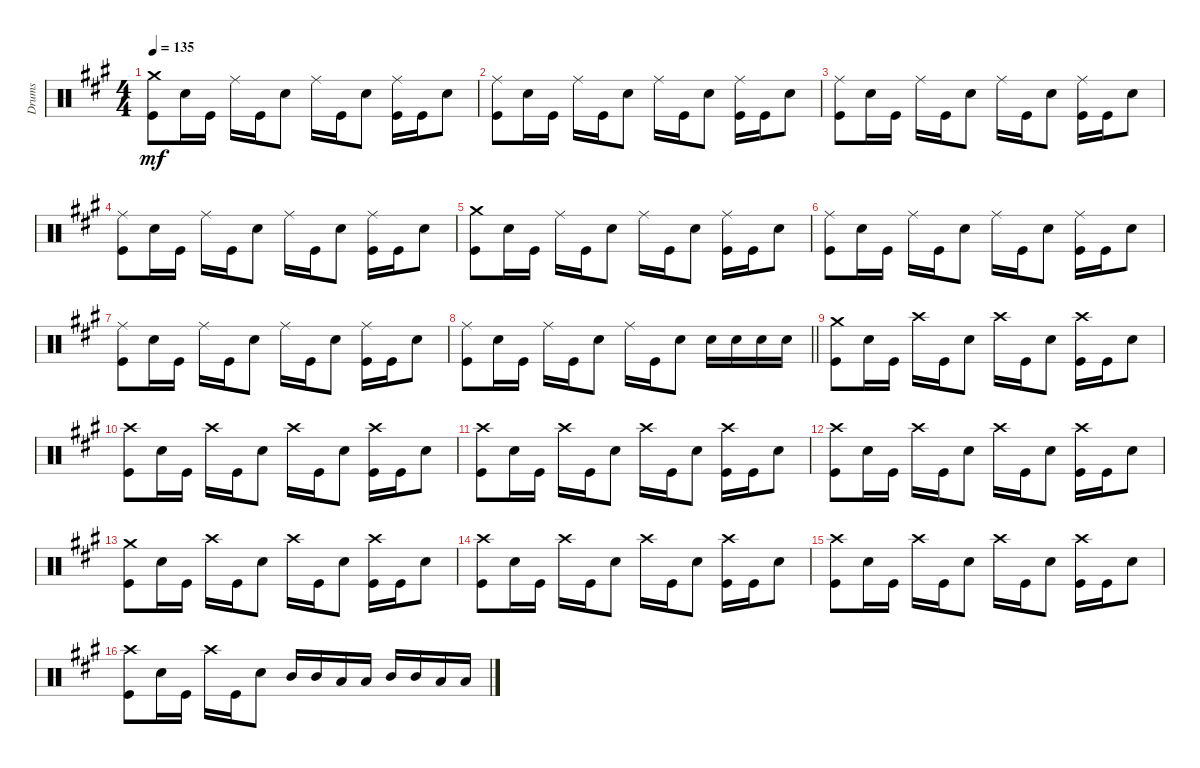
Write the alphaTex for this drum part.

\track ("Drums" "Drums") {instrument percussion}
\staff {score}
\articulation defaults
\ts (4 4)
\tempo 135
\clef neutral
\ks a
("Kick (hit)" "Crash medium (hit)").8{dy mf} "Snare (hit) 2".16 "Kick (hit)".16 "Ride (middle)".16 "Kick (hit)".16 "Snare (hit) 2".8 "Ride (middle)".16 "Kick (hit)".16 "Snare (hit) 2".8 ("Kick (hit)" "Ride (middle)").16 "Kick (hit)".16 "Snare (hit) 2".8 |
("Kick (hit)" "Ride (middle)").8 "Snare (hit) 2".16 "Kick (hit)".16 "Ride (middle)".16 "Kick (hit)".16 "Snare (hit) 2".8 "Ride (middle)".16 "Kick (hit)".16 "Snare (hit) 2".8 ("Kick (hit)" "Ride (middle)").16 "Kick (hit)".16 "Snare (hit) 2".8 |
("Kick (hit)" "Ride (middle)").8 "Snare (hit) 2".16 "Kick (hit)".16 "Ride (middle)".16 "Kick (hit)".16 "Snare (hit) 2".8 "Ride (middle)".16 "Kick (hit)".16 "Snare (hit) 2".8 ("Kick (hit)" "Ride (middle)").16 "Kick (hit)".16 "Snare (hit) 2".8 |
("Kick (hit)" "Ride (middle)").8 "Snare (hit) 2".16 "Kick (hit)".16 "Ride (middle)".16 "Kick (hit)".16 "Snare (hit) 2".8 "Ride (middle)".16 "Kick (hit)".16 "Snare (hit) 2".8 ("Kick (hit)" "Ride (middle)").16 "Kick (hit)".16 "Snare (hit) 2".8 |
("Kick (hit)" "Crash medium (hit)").8 "Snare (hit) 2".16 "Kick (hit)".16 "Ride (middle)".16 "Kick (hit)".16 "Snare (hit) 2".8 "Ride (middle)".16 "Kick (hit)".16 "Snare (hit) 2".8 ("Kick (hit)" "Ride (middle)").16 "Kick (hit)".16 "Snare (hit) 2".8 |
("Kick (hit)" "Ride (middle)").8 "Snare (hit) 2".16 "Kick (hit)".16 "Ride (middle)".16 "Kick (hit)".16 "Snare (hit) 2".8 "Ride (middle)".16 "Kick (hit)".16 "Snare (hit) 2".8 ("Kick (hit)" "Ride (middle)").16 "Kick (hit)".16 "Snare (hit) 2".8 |
("Kick (hit)" "Ride (middle)").8 "Snare (hit) 2".16 "Kick (hit)".16 "Ride (middle)".16 "Kick (hit)".16 "Snare (hit) 2".8 "Ride (middle)".16 "Kick (hit)".16 "Snare (hit) 2".8 ("Kick (hit)" "Ride (middle)").16 "Kick (hit)".16 "Snare (hit) 2".8 |
\barLineRight lightlight
("Kick (hit)" "Ride (middle)").8 "Snare (hit) 2".16 "Kick (hit)".16 "Ride (middle)".16 "Kick (hit)".16 "Snare (hit) 2".8 "Ride (middle)".16 "Kick (hit)".16 "Snare (hit) 2".8 "Snare (hit) 2".16 "Snare (hit) 2".16 "Snare (hit) 2".16 "Snare (hit) 2".16 |
("Kick (hit)" "Crash medium (hit)").8 "Snare (hit) 2".16 "Kick (hit)".16 "Crash high (hit)".16 "Kick (hit)".16 "Snare (hit) 2".8 "Crash high (hit)".16 "Kick (hit)".16 "Snare (hit) 2".8 ("Kick (hit)" "Crash high (hit)").16 "Kick (hit)".16 "Snare (hit) 2".8 |
("Kick (hit)" "Crash high (hit)").8 "Snare (hit) 2".16 "Kick (hit)".16 "Crash high (hit)".16 "Kick (hit)".16 "Snare (hit) 2".8 "Crash high (hit)".16 "Kick (hit)".16 "Snare (hit) 2".8 ("Kick (hit)" "Crash high (hit)").16 "Kick (hit)".16 "Snare (hit) 2".8 |
("Kick (hit)" "Crash high (hit)").8 "Snare (hit) 2".16 "Kick (hit)".16 "Crash high (hit)".16 "Kick (hit)".16 "Snare (hit) 2".8 "Crash high (hit)".16 "Kick (hit)".16 "Snare (hit) 2".8 ("Kick (hit)" "Crash high (hit)").16 "Kick (hit)".16 "Snare (hit) 2".8 |
("Kick (hit)" "Crash high (hit)").8 "Snare (hit) 2".16 "Kick (hit)".16 "Crash high (hit)".16 "Kick (hit)".16 "Snare (hit) 2".8 "Crash high (hit)".16 "Kick (hit)".16 "Snare (hit) 2".8 ("Kick (hit)" "Crash high (hit)").16 "Kick (hit)".16 "Snare (hit) 2".8 |
("Kick (hit)" "Crash medium (hit)").8 "Snare (hit) 2".16 "Kick (hit)".16 "Crash high (hit)".16 "Kick (hit)".16 "Snare (hit) 2".8 "Crash high (hit)".16 "Kick (hit)".16 "Snare (hit) 2".8 ("Kick (hit)" "Crash high (hit)").16 "Kick (hit)".16 "Snare (hit) 2".8 |
("Kick (hit)" "Crash high (hit)").8 "Snare (hit) 2".16 "Kick (hit)".16 "Crash high (hit)".16 "Kick (hit)".16 "Snare (hit) 2".8 "Crash high (hit)".16 "Kick (hit)".16 "Snare (hit) 2".8 ("Kick (hit)" "Crash high (hit)").16 "Kick (hit)".16 "Snare (hit) 2".8 |
("Kick (hit)" "Crash high (hit)").8 "Snare (hit) 2".16 "Kick (hit)".16 "Crash high (hit)".16 "Kick (hit)".16 "Snare (hit) 2".8 "Crash high (hit)".16 "Kick (hit)".16 "Snare (hit) 2".8 ("Kick (hit)" "Crash high (hit)").16 "Kick (hit)".16 "Snare (hit) 2".8 |
("Kick (hit)" "Crash high (hit)").8 "Snare (hit) 2".16 "Kick (hit)".16 "Crash high (hit)".16 "Kick (hit)".16 "Snare (hit) 2".8 "Mid Tom (hit)".16 "Mid Tom (hit)".16 "Low Tom (hit)".16 "Low Tom (hit)".16 "Mid Tom (hit)".16 "Mid Tom (hit)".16 "Low Tom (hit)".16 "Low Tom (hit)".16
